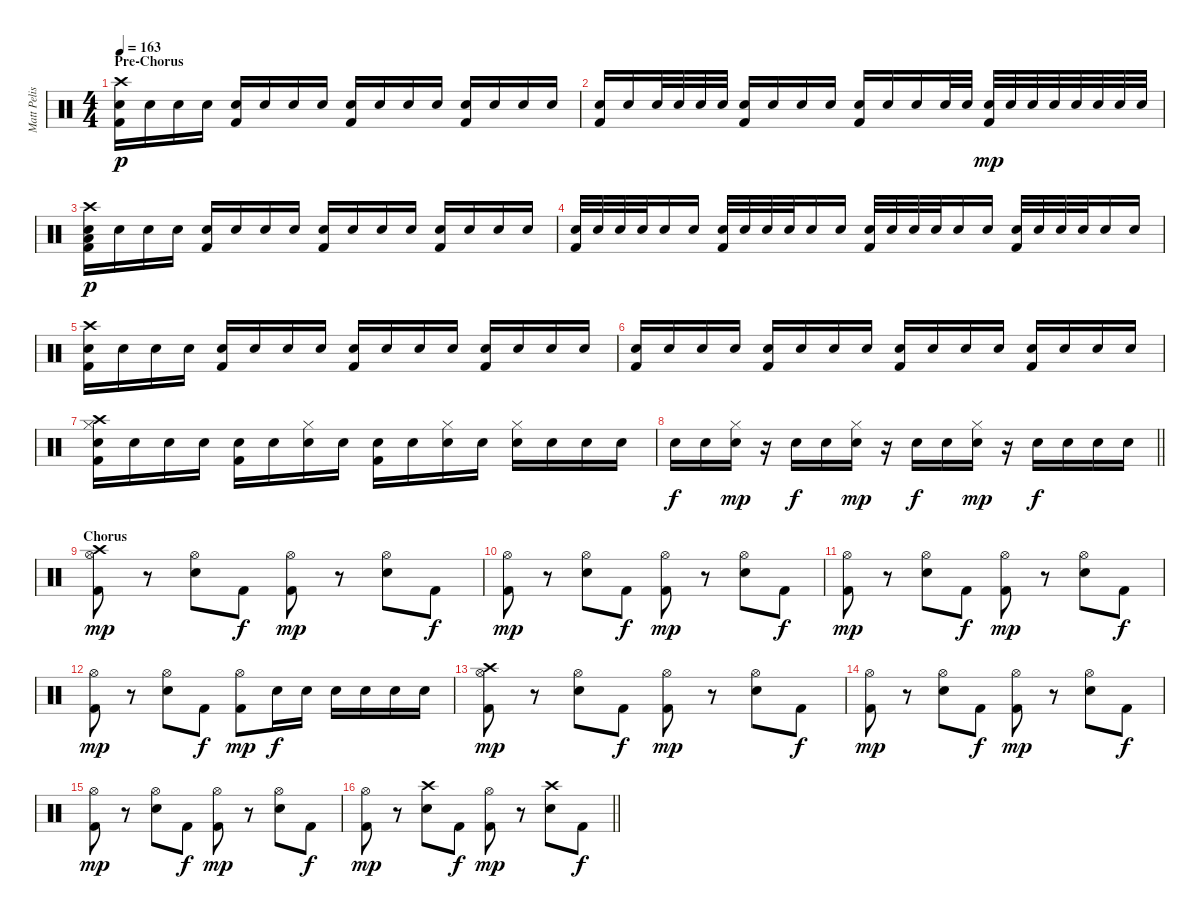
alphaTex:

\track ("Matt Pelissier (Drums)" "Matt Pelis") {instrument percussion}
\staff {score}
\articulation defaults
\ts (4 4)
\section ("" "Pre-Chorus")
\tempo 163
\clef neutral
\ks c
("Crash high (hit)" "Electric Snare (hit)" "Kick (hit) 2").16{dy p} "Electric Snare (hit)".16 "Electric Snare (hit)".16 "Electric Snare (hit)".16 ("Electric Snare (hit)" "Kick (hit) 2").16 "Electric Snare (hit)".16 "Electric Snare (hit)".16 "Electric Snare (hit)".16 ("Electric Snare (hit)" "Kick (hit) 2").16 "Electric Snare (hit)".16 "Electric Snare (hit)".16 "Electric Snare (hit)".16 ("Electric Snare (hit)" "Kick (hit) 2").16 "Electric Snare (hit)".16 "Electric Snare (hit)".16 "Electric Snare (hit)".16 |
("Electric Snare (hit)" "Kick (hit) 2").16 "Electric Snare (hit)".16 "Electric Snare (hit)".32 "Electric Snare (hit)".32 "Electric Snare (hit)".32 "Electric Snare (hit)".32 ("Electric Snare (hit)" "Kick (hit) 2").16 "Electric Snare (hit)".16 "Electric Snare (hit)".16 "Electric Snare (hit)".16 ("Electric Snare (hit)" "Kick (hit) 2").16 "Electric Snare (hit)".16 "Electric Snare (hit)".16 "Electric Snare (hit)".32 "Electric Snare (hit)".32 ("Electric Snare (hit)" "Kick (hit) 2").32{dy mp} "Electric Snare (hit)".32 "Electric Snare (hit)".32 "Electric Snare (hit)".32 "Electric Snare (hit)".32 "Electric Snare (hit)".32 "Electric Snare (hit)".32 "Electric Snare (hit)".32 |
("Low Floor Tom (hit)" "Crash high (hit)" "Electric Snare (hit)" "Kick (hit) 2").16{dy p} "Electric Snare (hit)".16 "Electric Snare (hit)".16 "Electric Snare (hit)".16 ("Electric Snare (hit)" "Kick (hit) 2").16 "Electric Snare (hit)".16 "Electric Snare (hit)".16 "Electric Snare (hit)".16 ("Electric Snare (hit)" "Kick (hit) 2").16 "Electric Snare (hit)".16 "Electric Snare (hit)".16 "Electric Snare (hit)".16 ("Electric Snare (hit)" "Kick (hit) 2").16 "Electric Snare (hit)".16 "Electric Snare (hit)".16 "Electric Snare (hit)".16 |
("Electric Snare (hit)" "Kick (hit) 2").32 "Electric Snare (hit)".32 "Electric Snare (hit)".32 "Electric Snare (hit)".32 "Electric Snare (hit)".16 "Electric Snare (hit)".16 ("Electric Snare (hit)" "Kick (hit) 2").32 "Electric Snare (hit)".32 "Electric Snare (hit)".32 "Electric Snare (hit)".32 "Electric Snare (hit)".16 "Electric Snare (hit)".16 ("Electric Snare (hit)" "Kick (hit) 2").32 "Electric Snare (hit)".32 "Electric Snare (hit)".32 "Electric Snare (hit)".32 "Electric Snare (hit)".16 "Electric Snare (hit)".16 ("Electric Snare (hit)" "Kick (hit) 2").32 "Electric Snare (hit)".32 "Electric Snare (hit)".32 "Electric Snare (hit)".32 "Electric Snare (hit)".16 "Electric Snare (hit)".16 |
("Crash high (hit)" "Electric Snare (hit)" "Kick (hit) 2").16 "Electric Snare (hit)".16 "Electric Snare (hit)".16 "Electric Snare (hit)".16 ("Electric Snare (hit)" "Kick (hit) 2").16 "Electric Snare (hit)".16 "Electric Snare (hit)".16 "Electric Snare (hit)".16 ("Electric Snare (hit)" "Kick (hit) 2").16 "Electric Snare (hit)".16 "Electric Snare (hit)".16 "Electric Snare (hit)".16 ("Electric Snare (hit)" "Kick (hit) 2").16 "Electric Snare (hit)".16 "Electric Snare (hit)".16 "Electric Snare (hit)".16 |
("Electric Snare (hit)" "Kick (hit) 2").16 "Electric Snare (hit)".16 "Electric Snare (hit)".16 "Electric Snare (hit)".16 ("Electric Snare (hit)" "Kick (hit) 2").16 "Electric Snare (hit)".16 "Electric Snare (hit)".16 "Electric Snare (hit)".16 ("Electric Snare (hit)" "Kick (hit) 2").16 "Electric Snare (hit)".16 "Electric Snare (hit)".16 "Electric Snare (hit)".16 ("Electric Snare (hit)" "Kick (hit) 2").16 "Electric Snare (hit)".16 "Electric Snare (hit)".16 "Electric Snare (hit)".16 |
("Hi-Hat (closed)" "Crash high (hit)" "Electric Snare (hit)" "Kick (hit) 2").16 "Electric Snare (hit)".16 "Electric Snare (hit)".16 "Electric Snare (hit)".16 ("Electric Snare (hit)" "Kick (hit) 2").16 "Electric Snare (hit)".16 ("Hi-Hat (closed)" "Electric Snare (hit)").16 "Electric Snare (hit)".16 ("Electric Snare (hit)" "Kick (hit) 2").16 "Electric Snare (hit)".16 ("Hi-Hat (closed)" "Electric Snare (hit)").16 "Electric Snare (hit)".16 ("Hi-Hat (closed)" "Electric Snare (hit)").16 "Electric Snare (hit)".16 "Electric Snare (hit)".16 "Electric Snare (hit)".16 |
\barLineRight lightlight "Electric Snare (hit)".16{dy f} "Electric Snare (hit)".16
("Hi-Hat (closed)" "Electric Snare (hit)").16{dy mp} r.16 "Electric Snare (hit)".16{dy f} "Electric Snare (hit)".16 ("Hi-Hat (closed)" "Electric Snare (hit)").16{dy mp} r.16 "Electric Snare (hit)".16{dy f} "Electric Snare (hit)".16 ("Hi-Hat (closed)" "Electric Snare (hit)").16{dy mp} r.16 "Electric Snare (hit)".16{dy f} "Electric Snare (hit)".16 "Electric Snare (hit)".16 "Electric Snare (hit)".16 |
\section ("" "Chorus")
("Crash high (hit)" "Hi-Hat (open)" "Kick (hit) 2").8{dy mp} r.8 ("Hi-Hat (open)" "Electric Snare (hit)").8 "Kick (hit) 2".8{dy f} ("Hi-Hat (open)" "Kick (hit) 2").8{dy mp} r.8 ("Hi-Hat (open)" "Electric Snare (hit)").8 "Kick (hit) 2".8{dy f} |
("Hi-Hat (open)" "Kick (hit) 2").8{dy mp} r.8 ("Hi-Hat (open)" "Electric Snare (hit)").8 "Kick (hit) 2".8{dy f} ("Hi-Hat (open)" "Kick (hit) 2").8{dy mp} r.8 ("Hi-Hat (open)" "Electric Snare (hit)").8 "Kick (hit) 2".8{dy f} |
("Hi-Hat (open)" "Kick (hit) 2").8{dy mp} r.8 ("Hi-Hat (open)" "Electric Snare (hit)").8 "Kick (hit) 2".8{dy f} ("Hi-Hat (open)" "Kick (hit) 2").8{dy mp} r.8 ("Hi-Hat (open)" "Electric Snare (hit)").8 "Kick (hit) 2".8{dy f} |
("Hi-Hat (open)" "Kick (hit) 2").8{dy mp} r.8 ("Hi-Hat (open)" "Electric Snare (hit)").8 "Kick (hit) 2".8{dy f} ("Hi-Hat (open)" "Kick (hit) 2").8{dy mp} "Electric Snare (hit)".16{dy f} "Electric Snare (hit)".16 "Electric Snare (hit)".16 "Electric Snare (hit)".16 "Electric Snare (hit)".16 "Electric Snare (hit)".16 |
("Crash high (hit)" "Hi-Hat (open)" "Kick (hit) 2").8{dy mp} r.8 ("Hi-Hat (open)" "Electric Snare (hit)").8 "Kick (hit) 2".8{dy f} ("Hi-Hat (open)" "Kick (hit) 2").8{dy mp} r.8 ("Hi-Hat (open)" "Electric Snare (hit)").8 "Kick (hit) 2".8{dy f} |
("Hi-Hat (open)" "Kick (hit) 2").8{dy mp} r.8 ("Hi-Hat (open)" "Electric Snare (hit)").8 "Kick (hit) 2".8{dy f} ("Hi-Hat (open)" "Kick (hit) 2").8{dy mp} r.8 ("Hi-Hat (open)" "Electric Snare (hit)").8 "Kick (hit) 2".8{dy f} |
("Hi-Hat (open)" "Kick (hit) 2").8{dy mp} r.8 ("Hi-Hat (open)" "Electric Snare (hit)").8 "Kick (hit) 2".8{dy f} ("Hi-Hat (open)" "Kick (hit) 2").8{dy mp} r.8 ("Hi-Hat (open)" "Electric Snare (hit)").8 "Kick (hit) 2".8{dy f} |
\barLineRight lightlight
("Hi-Hat (open)" "Kick (hit) 2").8{dy mp} r.8 ("Crash high (hit)" "Electric Snare (hit)").8 "Kick (hit) 2".8{dy f} ("Hi-Hat (open)" "Kick (hit) 2").8{dy mp} r.8 ("Crash high (hit)" "Electric Snare (hit)").8 "Kick (hit) 2".8{dy f}
